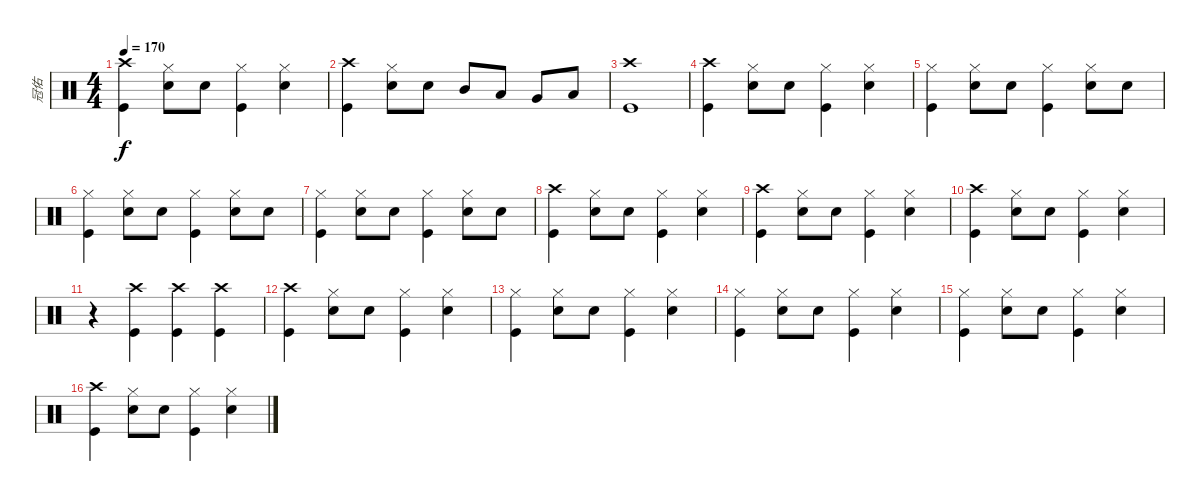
\track ("冠佑" "冠佑") {instrument percussion}
\staff {score}
\articulation defaults
\ts (4 4)
\tempo 170
\clef neutral
\ks c
("Crash high (hit)" "Kick (hit)").4{dy f} ("Hi-Hat (closed)" "Snare (hit) 2").8 "Snare (hit) 2".8 ("Hi-Hat (closed)" "Kick (hit)").4 ("Hi-Hat (closed)" "Snare (hit) 2").4 |
("Crash high (hit)" "Kick (hit)").4 ("Hi-Hat (closed)" "Snare (hit) 2").8 "Snare (hit) 2".8 "Mid Tom (hit)".8 "Low Tom (hit)".8 "Very Low Tom (hit)".8 "Low Floor Tom (hit)".8 |
("Crash high (hit)" "Kick (hit)").1 |
("Crash high (hit)" "Kick (hit)").4 ("Hi-Hat (closed)" "Snare (hit) 2").8 "Snare (hit) 2".8 ("Hi-Hat (closed)" "Kick (hit)").4 ("Hi-Hat (closed)" "Snare (hit) 2").4 |
("Hi-Hat (closed)" "Kick (hit)").4 ("Hi-Hat (closed)" "Snare (hit) 2").8 "Snare (hit) 2".8 ("Hi-Hat (closed)" "Kick (hit)").4 ("Hi-Hat (closed)" "Snare (hit) 2").8 "Snare (hit) 2".8 |
("Hi-Hat (closed)" "Kick (hit)").4 ("Hi-Hat (closed)" "Snare (hit) 2").8 "Snare (hit) 2".8 ("Hi-Hat (closed)" "Kick (hit)").4 ("Hi-Hat (closed)" "Snare (hit) 2").8 "Snare (hit) 2".8 |
("Hi-Hat (closed)" "Kick (hit)").4 ("Hi-Hat (closed)" "Snare (hit) 2").8 "Snare (hit) 2".8 ("Hi-Hat (closed)" "Kick (hit)").4 ("Hi-Hat (closed)" "Snare (hit) 2").8 "Snare (hit) 2".8 |
("Crash high (hit)" "Kick (hit)").4 ("Hi-Hat (closed)" "Snare (hit) 2").8 "Snare (hit) 2".8 ("Hi-Hat (closed)" "Kick (hit)").4 ("Hi-Hat (closed)" "Snare (hit) 2").4 |
("Crash high (hit)" "Kick (hit)").4 ("Hi-Hat (closed)" "Snare (hit) 2").8 "Snare (hit) 2".8 ("Hi-Hat (closed)" "Kick (hit)").4 ("Hi-Hat (closed)" "Snare (hit) 2").4 |
("Crash high (hit)" "Kick (hit)").4 ("Hi-Hat (closed)" "Snare (hit) 2").8 "Snare (hit) 2".8 ("Hi-Hat (closed)" "Kick (hit)").4 ("Hi-Hat (closed)" "Snare (hit) 2").4 |
r.4 ("Crash high (hit)" "Kick (hit)").4 ("Crash high (hit)" "Kick (hit)").4 ("Crash high (hit)" "Kick (hit)").4 |
("Crash high (hit)" "Kick (hit)").4 ("Hi-Hat (closed)" "Snare (hit) 2").8 "Snare (hit) 2".8 ("Hi-Hat (closed)" "Kick (hit)").4 ("Hi-Hat (closed)" "Snare (hit) 2").4 |
("Hi-Hat (closed)" "Kick (hit)").4 ("Hi-Hat (closed)" "Snare (hit) 2").8 "Snare (hit) 2".8 ("Hi-Hat (closed)" "Kick (hit)").4 ("Hi-Hat (closed)" "Snare (hit) 2").4 |
("Hi-Hat (closed)" "Kick (hit)").4 ("Hi-Hat (closed)" "Snare (hit) 2").8 "Snare (hit) 2".8 ("Hi-Hat (closed)" "Kick (hit)").4 ("Hi-Hat (closed)" "Snare (hit) 2").4 |
("Hi-Hat (closed)" "Kick (hit)").4 ("Hi-Hat (closed)" "Snare (hit) 2").8 "Snare (hit) 2".8 ("Hi-Hat (closed)" "Kick (hit)").4 ("Hi-Hat (closed)" "Snare (hit) 2").4 |
("Crash high (hit)" "Kick (hit)").4 ("Hi-Hat (closed)" "Snare (hit) 2").8 "Snare (hit) 2".8 ("Hi-Hat (closed)" "Kick (hit)").4 ("Hi-Hat (closed)" "Snare (hit) 2").4
